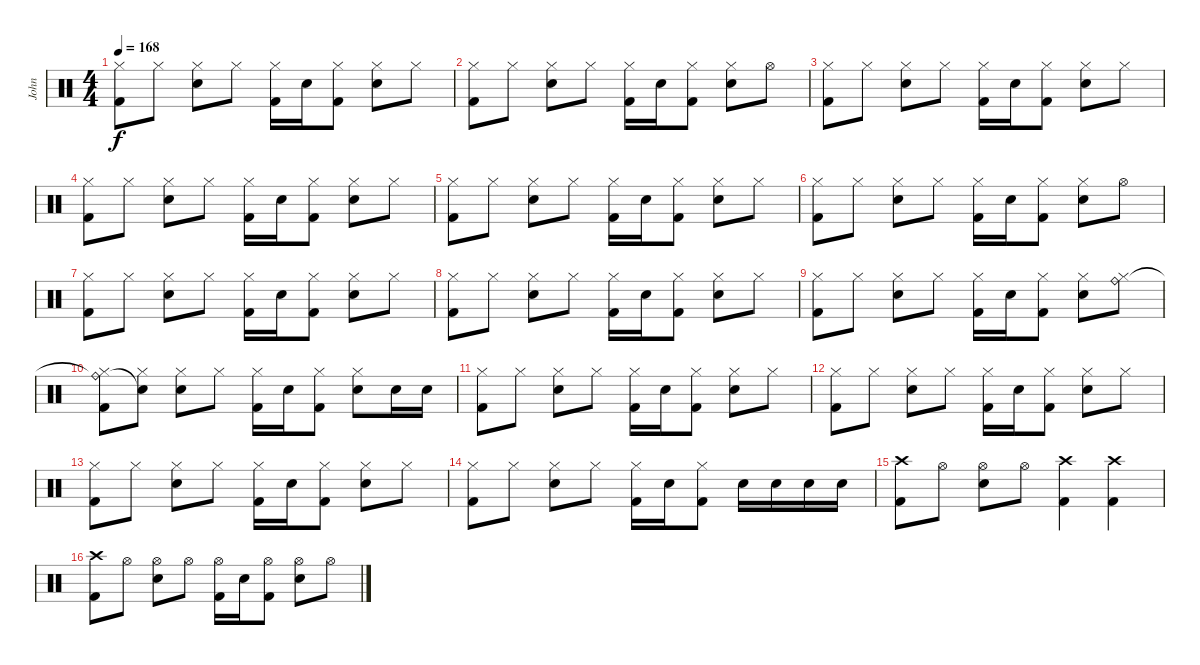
\track ("John" "John") {instrument percussion}
\staff {score}
\articulation defaults
\ts (4 4)
\tempo 168
\clef neutral
\ks c
("Hi-Hat (closed)" "Kick (hit) 2").8{dy f} "Hi-Hat (closed)".8 ("Hi-Hat (closed)" "Electric Snare (hit)").8 "Hi-Hat (closed)".8 ("Hi-Hat (closed)" "Kick (hit) 2").16 "Electric Snare (hit)".16 ("Hi-Hat (closed)" "Kick (hit) 2").8 ("Hi-Hat (closed)" "Electric Snare (hit)").8 "Hi-Hat (closed)".8 |
("Hi-Hat (closed)" "Kick (hit) 2").8 "Hi-Hat (closed)".8 ("Hi-Hat (closed)" "Electric Snare (hit)").8 "Hi-Hat (closed)".8 ("Hi-Hat (closed)" "Kick (hit) 2").16 "Electric Snare (hit)".16 ("Hi-Hat (closed)" "Kick (hit) 2").8 ("Hi-Hat (closed)" "Electric Snare (hit)").8 "Hi-Hat (open)".8 |
("Hi-Hat (closed)" "Kick (hit) 2").8 "Hi-Hat (closed)".8 ("Hi-Hat (closed)" "Electric Snare (hit)").8 "Hi-Hat (closed)".8 ("Hi-Hat (closed)" "Kick (hit) 2").16 "Electric Snare (hit)".16 ("Hi-Hat (closed)" "Kick (hit) 2").8 ("Hi-Hat (closed)" "Electric Snare (hit)").8 "Hi-Hat (closed)".8 |
("Hi-Hat (closed)" "Kick (hit) 2").8 "Hi-Hat (closed)".8 ("Hi-Hat (closed)" "Electric Snare (hit)").8 "Hi-Hat (closed)".8 ("Hi-Hat (closed)" "Kick (hit) 2").16 "Electric Snare (hit)".16 ("Hi-Hat (closed)" "Kick (hit) 2").8 ("Hi-Hat (closed)" "Electric Snare (hit)").8 "Hi-Hat (closed)".8 |
("Hi-Hat (closed)" "Kick (hit) 2").8 "Hi-Hat (closed)".8 ("Hi-Hat (closed)" "Electric Snare (hit)").8 "Hi-Hat (closed)".8 ("Hi-Hat (closed)" "Kick (hit) 2").16 "Electric Snare (hit)".16 ("Hi-Hat (closed)" "Kick (hit) 2").8 ("Hi-Hat (closed)" "Electric Snare (hit)").8 "Hi-Hat (closed)".8 |
("Hi-Hat (closed)" "Kick (hit) 2").8 "Hi-Hat (closed)".8 ("Hi-Hat (closed)" "Electric Snare (hit)").8 "Hi-Hat (closed)".8 ("Hi-Hat (closed)" "Kick (hit) 2").16 "Electric Snare (hit)".16 ("Hi-Hat (closed)" "Kick (hit) 2").8 ("Hi-Hat (closed)" "Electric Snare (hit)").8 "Hi-Hat (open)".8 |
("Hi-Hat (closed)" "Kick (hit) 2").8 "Hi-Hat (closed)".8 ("Hi-Hat (closed)" "Electric Snare (hit)").8 "Hi-Hat (closed)".8 ("Hi-Hat (closed)" "Kick (hit) 2").16 "Electric Snare (hit)".16 ("Hi-Hat (closed)" "Kick (hit) 2").8 ("Hi-Hat (closed)" "Electric Snare (hit)").8 "Hi-Hat (closed)".8 |
("Hi-Hat (closed)" "Kick (hit) 2").8 "Hi-Hat (closed)".8 ("Hi-Hat (closed)" "Electric Snare (hit)").8 "Hi-Hat (closed)".8 ("Hi-Hat (closed)" "Kick (hit) 2").16 "Electric Snare (hit)".16 ("Hi-Hat (closed)" "Kick (hit) 2").8 ("Hi-Hat (closed)" "Electric Snare (hit)").8 "Hi-Hat (closed)".8 |
("Hi-Hat (closed)" "Kick (hit) 2").8 "Hi-Hat (closed)".8 ("Hi-Hat (closed)" "Electric Snare (hit)").8 "Hi-Hat (closed)".8 ("Hi-Hat (closed)" "Kick (hit) 2").16 "Electric Snare (hit)".16 ("Hi-Hat (closed)" "Kick (hit) 2").8 ("Hi-Hat (closed)" "Electric Snare (hit)").8 ("Ride (bell)" "Hi-Hat (closed)").8 |
("Ride (bell)"{t} "Hi-Hat (closed)" "Kick (hit) 2").8 ("Snare (hit)"{t} "Hi-Hat (closed)").8 ("Hi-Hat (closed)" "Electric Snare (hit)").8 "Hi-Hat (closed)".8 ("Hi-Hat (closed)" "Kick (hit) 2").16 "Electric Snare (hit)".16 ("Hi-Hat (closed)" "Kick (hit) 2").8 ("Hi-Hat (closed)" "Electric Snare (hit)").8 "Electric Snare (hit)".16 "Electric Snare (hit)".16 |
("Hi-Hat (closed)" "Kick (hit) 2").8 "Hi-Hat (closed)".8 ("Hi-Hat (closed)" "Electric Snare (hit)").8 "Hi-Hat (closed)".8 ("Hi-Hat (closed)" "Kick (hit) 2").16 "Electric Snare (hit)".16 ("Hi-Hat (closed)" "Kick (hit) 2").8 ("Hi-Hat (closed)" "Electric Snare (hit)").8 "Hi-Hat (closed)".8 |
("Hi-Hat (closed)" "Kick (hit) 2").8 "Hi-Hat (closed)".8 ("Hi-Hat (closed)" "Electric Snare (hit)").8 "Hi-Hat (closed)".8 ("Hi-Hat (closed)" "Kick (hit) 2").16 "Electric Snare (hit)".16 ("Hi-Hat (closed)" "Kick (hit) 2").8 ("Hi-Hat (closed)" "Electric Snare (hit)").8 "Hi-Hat (closed)".8 |
("Hi-Hat (closed)" "Kick (hit) 2").8 "Hi-Hat (closed)".8 ("Hi-Hat (closed)" "Electric Snare (hit)").8 "Hi-Hat (closed)".8 ("Hi-Hat (closed)" "Kick (hit) 2").16 "Electric Snare (hit)".16 ("Hi-Hat (closed)" "Kick (hit) 2").8 ("Hi-Hat (closed)" "Electric Snare (hit)").8 "Hi-Hat (closed)".8 |
("Hi-Hat (closed)" "Kick (hit) 2").8 "Hi-Hat (closed)".8 ("Hi-Hat (closed)" "Electric Snare (hit)").8 "Hi-Hat (closed)".8 ("Hi-Hat (closed)" "Kick (hit) 2").16 "Electric Snare (hit)".16 ("Hi-Hat (closed)" "Kick (hit) 2").8 "Electric Snare (hit)".16 "Electric Snare (hit)".16 "Electric Snare (hit)".16 "Electric Snare (hit)".16 |
("Crash high (hit)" "Kick (hit) 2").8 "Hi-Hat (open)".8 ("Hi-Hat (open)" "Electric Snare (hit)").8 "Hi-Hat (open)".8 ("Crash high (hit)" "Kick (hit) 2").4 ("Crash high (hit)" "Kick (hit) 2").4 |
("Crash high (hit)" "Kick (hit) 2").8 "Hi-Hat (open)".8 ("Hi-Hat (open)" "Electric Snare (hit)").8 "Hi-Hat (open)".8 ("Hi-Hat (open)" "Kick (hit) 2").16 "Electric Snare (hit)".16 ("Hi-Hat (open)" "Kick (hit) 2").8 ("Hi-Hat (open)" "Electric Snare (hit)").8 "Hi-Hat (open)".8
